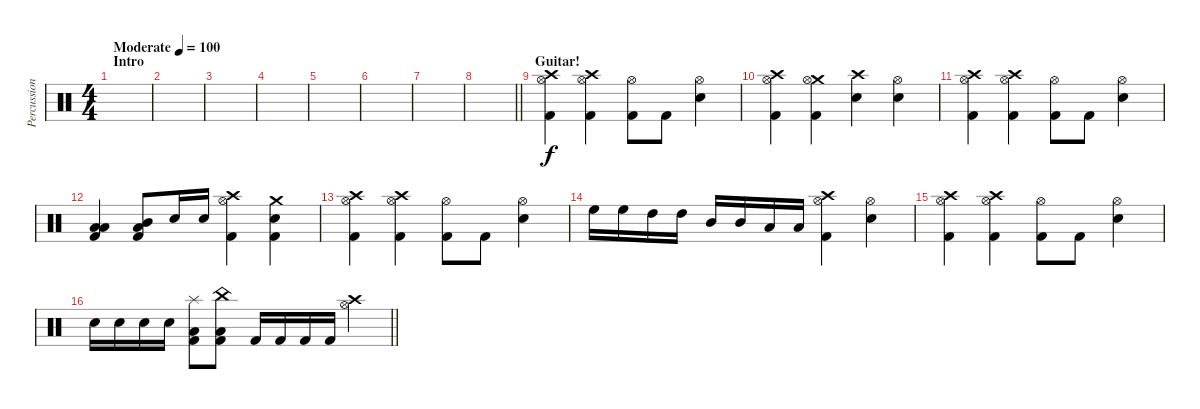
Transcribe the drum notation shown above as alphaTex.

\track ("Percussion" "Percussion") {instrument percussion}
\staff {score}
\articulation defaults
\ts (4 4)
\section ("" "Intro")
\tempo (100 "Moderate")
\clef neutral
\ks c
|
|
|
|
|
|
|
\barLineRight lightlight
|
\section ("" "Guitar!")
("Crash high (hit)" "Hi-Hat (open)" "Kick (hit) 2").4 ("Crash high (hit)" "Hi-Hat (open)" "Kick (hit) 2").4 ("Hi-Hat (open)" "Kick (hit) 2").8 "Kick (hit) 2".8 ("Hi-Hat (open)" "Snare (hit) 2").4 |
("Crash high (hit)" "Hi-Hat (open)" "Kick (hit) 2").4 ("Crash medium (hit)" "Hi-Hat (open)" "Kick (hit) 2").4 ("Crash high (hit)" "Snare (hit) 2").4 ("Hi-Hat (open)" "Snare (hit) 2").4 |
("Crash high (hit)" "Hi-Hat (open)" "Kick (hit) 2").4 ("Crash high (hit)" "Hi-Hat (open)" "Kick (hit) 2").4 ("Hi-Hat (open)" "Kick (hit) 2").8 "Kick (hit) 2".8 ("Hi-Hat (open)" "Snare (hit) 2").4 |
("Low Tom (hit)" "Low Floor Tom (hit)" "Kick (hit) 2").4 ("Mid Tom (hit)" "Low Tom (hit)" "Kick (hit) 2").8 "Snare (hit) 2".16 "Snare (hit) 2".16 ("Crash high (hit)" "Hi-Hat (open)" "Kick (hit) 2").4 ("Crash medium (hit)" "Snare (hit) 2" "Kick (hit) 2").4 |
("Crash high (hit)" "Hi-Hat (open)" "Kick (hit) 2").4 ("Crash high (hit)" "Hi-Hat (open)" "Kick (hit) 2").4 ("Hi-Hat (open)" "Kick (hit) 2").8 "Kick (hit) 2".8 ("Hi-Hat (open)" "Snare (hit) 2").4 |
"High Floor Tom (hit)".16 "High Floor Tom (hit)".16 "High Tom (hit)".16 "High Tom (hit)".16 "Mid Tom (hit)".16 "Mid Tom (hit)".16 "Low Tom (hit)".16 "Low Tom (hit)".16 ("Crash high (hit)" "Hi-Hat (open)" "Kick (hit) 2").4 ("Hi-Hat (open)" "Snare (hit) 2").4 |
("Crash high (hit)" "Hi-Hat (open)" "Kick (hit) 2").4 ("Crash high (hit)" "Hi-Hat (open)" "Kick (hit) 2").4 ("Hi-Hat (open)" "Kick (hit) 2").8 "Kick (hit) 2".8 ("Hi-Hat (open)" "Snare (hit) 2").4 |
\barLineRight lightlight "Snare (hit) 2".16 "Snare (hit) 2".16 "Snare (hit) 2".16 "Snare (hit) 2".16
("Splash (hit)" "Low Floor Tom (hit)" "Kick (hit) 2").8 ("China (hit)" "Low Floor Tom (hit)" "Kick (hit) 2").8 "Kick (hit) 2".16 "Kick (hit) 2".16 "Kick (hit) 2".16 "Kick (hit) 2".16 ("Crash high (hit)" "Hi-Hat (open)").4
